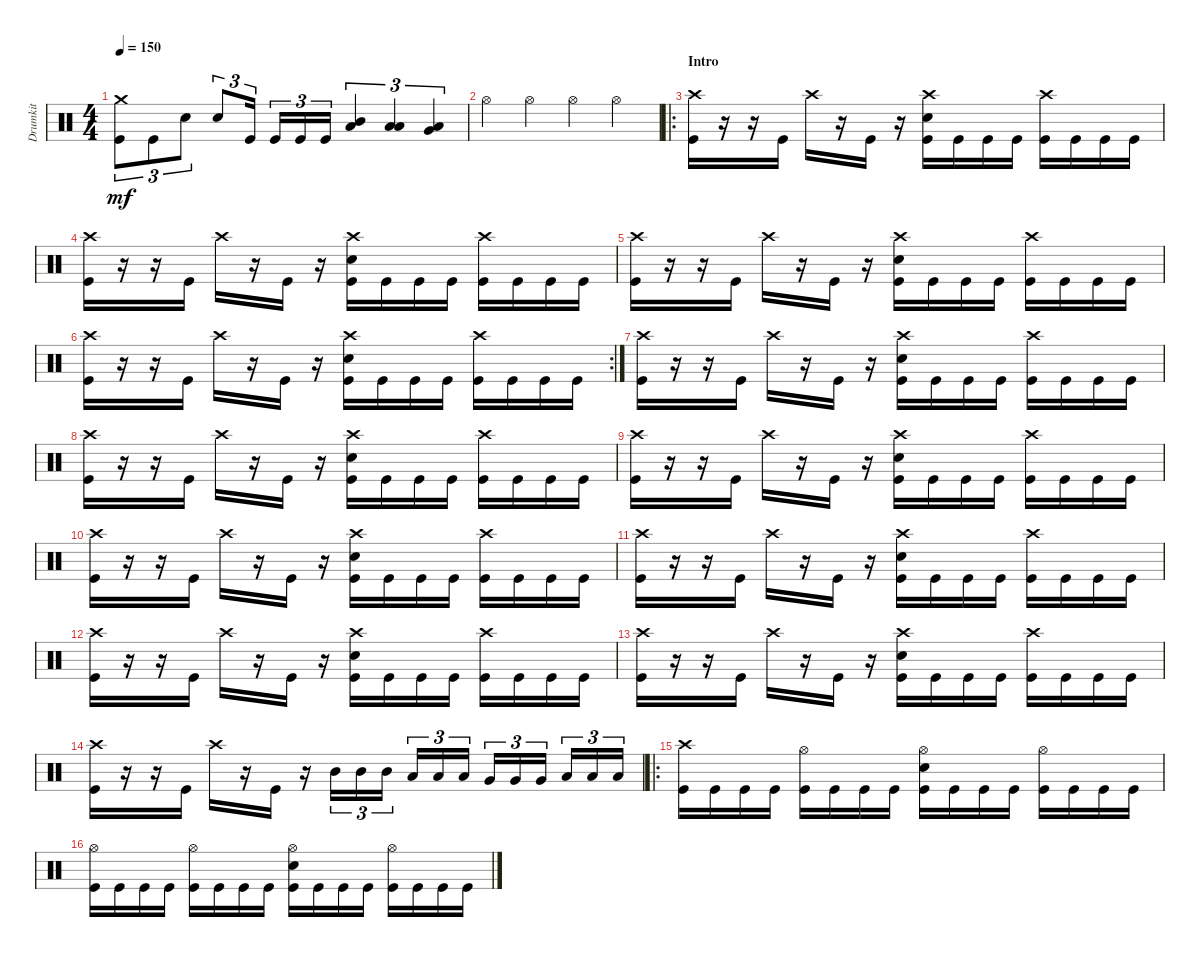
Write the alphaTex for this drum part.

\track ("Drumkit" "Drumkit") {instrument percussion}
\staff {score}
\articulation defaults
\ts (4 4)
\tempo 150
\clef neutral
\ks c
("Kick (hit)" "Crash medium (hit)").8{tu (3 2) dy mf} "Kick (hit)".8{tu (3 2)} "Snare (hit) 2".8{tu (3 2)} "Snare (hit) 2".8{tu (3 2)} "Kick (hit)".16{tu (3 2)} "Kick (hit)".16{tu (3 2)} "Kick (hit)".16{tu (3 2)} "Kick (hit)".16{tu (3 2)} ("Mid Tom (hit)" "Low Floor Tom (hit)").4{tu (3 2)} ("Low Floor Tom (hit)" "Low Tom (hit)").4{tu (3 2)} ("Low Floor Tom (hit)" "Very Low Tom (hit)").4{tu (3 2)} |
"Hi-Hat (open)".4 "Hi-Hat (open)".4 "Hi-Hat (open)".4 "Hi-Hat (open)".4 |
\ro
\section ("" "Intro")
("Kick (hit)" "Crash high (hit)").16 r.16 r.16 "Kick (hit)".16 "Crash high (hit)".16 r.16 "Kick (hit)".16 r.16 ("Snare (hit) 2" "Kick (hit)" "Crash high (hit)").16 "Kick (hit)".16 "Kick (hit)".16 "Kick (hit)".16 ("Crash high (hit)" "Kick (hit)").16 "Kick (hit)".16 "Kick (hit)".16 "Kick (hit)".16 |
("Kick (hit)" "Crash high (hit)").16 r.16 r.16 "Kick (hit)".16 "Crash high (hit)".16 r.16 "Kick (hit)".16 r.16 ("Snare (hit) 2" "Kick (hit)" "Crash high (hit)").16 "Kick (hit)".16 "Kick (hit)".16 "Kick (hit)".16 ("Crash high (hit)" "Kick (hit)").16 "Kick (hit)".16 "Kick (hit)".16 "Kick (hit)".16 |
("Kick (hit)" "Crash high (hit)").16 r.16 r.16 "Kick (hit)".16 "Crash high (hit)".16 r.16 "Kick (hit)".16 r.16 ("Snare (hit) 2" "Kick (hit)" "Crash high (hit)").16 "Kick (hit)".16 "Kick (hit)".16 "Kick (hit)".16 ("Crash high (hit)" "Kick (hit)").16 "Kick (hit)".16 "Kick (hit)".16 "Kick (hit)".16 |
\rc 2
("Kick (hit)" "Crash high (hit)").16 r.16 r.16 "Kick (hit)".16 "Crash high (hit)".16 r.16 "Kick (hit)".16 r.16 ("Snare (hit) 2" "Kick (hit)" "Crash high (hit)").16 "Kick (hit)".16 "Kick (hit)".16 "Kick (hit)".16 ("Crash high (hit)" "Kick (hit)").16 "Kick (hit)".16 "Kick (hit)".16 "Kick (hit)".16 |
("Kick (hit)" "Crash high (hit)").16 r.16 r.16 "Kick (hit)".16 "Crash high (hit)".16 r.16 "Kick (hit)".16 r.16 ("Snare (hit) 2" "Kick (hit)" "Crash high (hit)").16 "Kick (hit)".16 "Kick (hit)".16 "Kick (hit)".16 ("Crash high (hit)" "Kick (hit)").16 "Kick (hit)".16 "Kick (hit)".16 "Kick (hit)".16 |
("Kick (hit)" "Crash high (hit)").16 r.16 r.16 "Kick (hit)".16 "Crash high (hit)".16 r.16 "Kick (hit)".16 r.16 ("Snare (hit) 2" "Kick (hit)" "Crash high (hit)").16 "Kick (hit)".16 "Kick (hit)".16 "Kick (hit)".16 ("Crash high (hit)" "Kick (hit)").16 "Kick (hit)".16 "Kick (hit)".16 "Kick (hit)".16 |
("Kick (hit)" "Crash high (hit)").16 r.16 r.16 "Kick (hit)".16 "Crash high (hit)".16 r.16 "Kick (hit)".16 r.16 ("Snare (hit) 2" "Kick (hit)" "Crash high (hit)").16 "Kick (hit)".16 "Kick (hit)".16 "Kick (hit)".16 ("Crash high (hit)" "Kick (hit)").16 "Kick (hit)".16 "Kick (hit)".16 "Kick (hit)".16 |
("Kick (hit)" "Crash high (hit)").16 r.16 r.16 "Kick (hit)".16 "Crash high (hit)".16 r.16 "Kick (hit)".16 r.16 ("Snare (hit) 2" "Kick (hit)" "Crash high (hit)").16 "Kick (hit)".16 "Kick (hit)".16 "Kick (hit)".16 ("Crash high (hit)" "Kick (hit)").16 "Kick (hit)".16 "Kick (hit)".16 "Kick (hit)".16 |
("Kick (hit)" "Crash high (hit)").16 r.16 r.16 "Kick (hit)".16 "Crash high (hit)".16 r.16 "Kick (hit)".16 r.16 ("Snare (hit) 2" "Kick (hit)" "Crash high (hit)").16 "Kick (hit)".16 "Kick (hit)".16 "Kick (hit)".16 ("Crash high (hit)" "Kick (hit)").16 "Kick (hit)".16 "Kick (hit)".16 "Kick (hit)".16 |
("Kick (hit)" "Crash high (hit)").16 r.16 r.16 "Kick (hit)".16 "Crash high (hit)".16 r.16 "Kick (hit)".16 r.16 ("Snare (hit) 2" "Kick (hit)" "Crash high (hit)").16 "Kick (hit)".16 "Kick (hit)".16 "Kick (hit)".16 ("Crash high (hit)" "Kick (hit)").16 "Kick (hit)".16 "Kick (hit)".16 "Kick (hit)".16 |
("Kick (hit)" "Crash high (hit)").16 r.16 r.16 "Kick (hit)".16 "Crash high (hit)".16 r.16 "Kick (hit)".16 r.16 ("Snare (hit) 2" "Kick (hit)" "Crash high (hit)").16 "Kick (hit)".16 "Kick (hit)".16 "Kick (hit)".16 ("Crash high (hit)" "Kick (hit)").16 "Kick (hit)".16 "Kick (hit)".16 "Kick (hit)".16 |
("Kick (hit)" "Crash high (hit)").16 r.16 r.16 "Kick (hit)".16 "Crash high (hit)".16 r.16 "Kick (hit)".16 r.16 "Mid Tom (hit)".16{tu (3 2)} "Mid Tom (hit)".16{tu (3 2)} "Mid Tom (hit)".16{tu (3 2)} "Low Tom (hit)".16{tu (3 2)} "Low Tom (hit)".16{tu (3 2)} "Low Tom (hit)".16{tu (3 2)} "Very Low Tom (hit)".16{tu (3 2)} "Very Low Tom (hit)".16{tu (3 2)} "Very Low Tom (hit)".16{tu (3 2)} "Low Floor Tom (hit)".16{tu (3 2)} "Low Floor Tom (hit)".16{tu (3 2)} "Low Floor Tom (hit)".16{tu (3 2)} |
\ro
\section ("" "")
("Kick (hit)" "Crash high (hit)").16 "Kick (hit)".16 "Kick (hit)".16 "Kick (hit)".16 ("Kick (hit)" "Hi-Hat (open)").16 "Kick (hit)".16 "Kick (hit)".16 "Kick (hit)".16 ("Kick (hit)" "Hi-Hat (open)" "Snare (hit) 2").16 "Kick (hit)".16 "Kick (hit)".16 "Kick (hit)".16 ("Kick (hit)" "Hi-Hat (open)").16 "Kick (hit)".16 "Kick (hit)".16 "Kick (hit)".16 |
("Kick (hit)" "Hi-Hat (open)").16 "Kick (hit)".16 "Kick (hit)".16 "Kick (hit)".16 ("Kick (hit)" "Hi-Hat (open)").16 "Kick (hit)".16 "Kick (hit)".16 "Kick (hit)".16 ("Kick (hit)" "Hi-Hat (open)" "Snare (hit) 2").16 "Kick (hit)".16 "Kick (hit)".16 "Kick (hit)".16 ("Kick (hit)" "Hi-Hat (open)").16 "Kick (hit)".16 "Kick (hit)".16 "Kick (hit)".16
